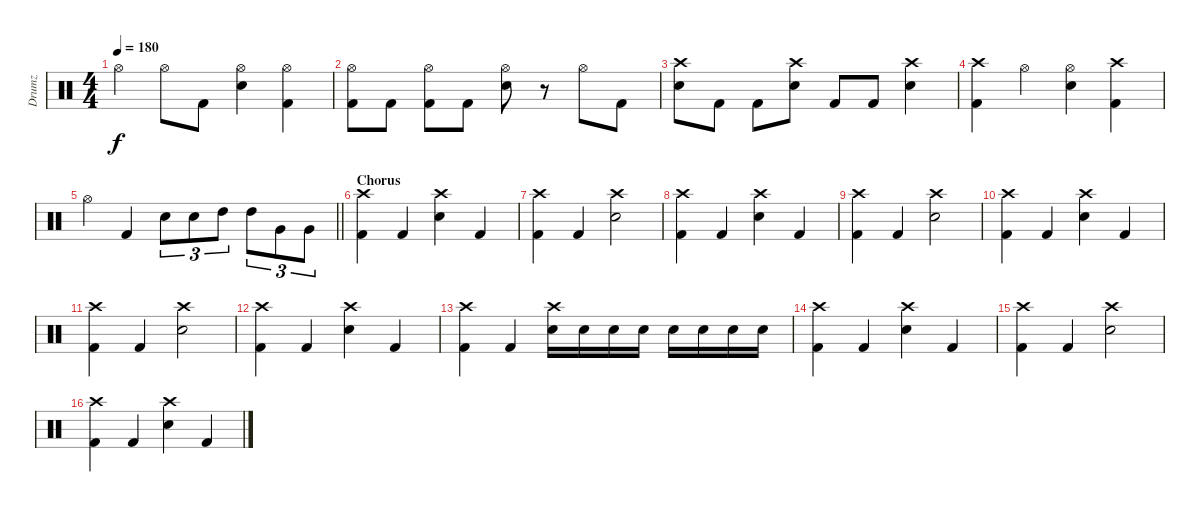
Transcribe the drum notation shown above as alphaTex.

\track ("Drumz" "Drumz") {instrument percussion}
\staff {score}
\articulation defaults
\ts (4 4)
\tempo 180
\clef neutral
\ks c "Hi-Hat (open)".4{dy f} "Hi-Hat (open)".8 "Kick (hit) 2".8
("Hi-Hat (open)" "Snare (hit) 2").4 ("Kick (hit) 2" "Hi-Hat (open)").4 |
("Kick (hit) 2" "Hi-Hat (open)").8 "Kick (hit) 2".8 ("Kick (hit) 2" "Hi-Hat (open)").8 "Kick (hit) 2".8 ("Hi-Hat (open)" "Snare (hit) 2").8 r.8 "Hi-Hat (open)".8 "Kick (hit) 2".8 |
("Crash high (hit)" "Snare (hit) 2").8 "Kick (hit) 2".8 "Kick (hit) 2".8 ("Crash high (hit)" "Snare (hit) 2").8 "Kick (hit) 2".8 "Kick (hit) 2".8 ("Crash high (hit)" "Snare (hit) 2").4 |
("Kick (hit) 2" "Crash high (hit)").4 "Hi-Hat (open)".4 ("Hi-Hat (open)" "Snare (hit) 2").4 ("Kick (hit) 2" "Crash high (hit)").4 |
\barLineRight lightlight "Hi-Hat (open)".4 "Kick (hit) 2".4 "Snare (hit) 2".8{tu (3 2)} "Snare (hit) 2".8{tu (3 2)} "High Tom (hit)".8{tu (3 2)} "High Tom (hit)".8{tu (3 2)} "Very Low Tom (hit)".8{tu (3 2)} "Very Low Tom (hit)".8{tu (3 2)}
|
\section ("" "Chorus")
("Kick (hit) 2" "Crash high (hit)").4 "Kick (hit) 2".4 ("Snare (hit) 2" "Crash high (hit)").4 "Kick (hit) 2".4 |
("Crash high (hit)" "Kick (hit) 2").4 "Kick (hit) 2".4 ("Crash high (hit)" "Snare (hit) 2").2 |
("Kick (hit) 2" "Crash high (hit)").4 "Kick (hit) 2".4 ("Snare (hit) 2" "Crash high (hit)").4 "Kick (hit) 2".4 |
("Crash high (hit)" "Kick (hit) 2").4 "Kick (hit) 2".4 ("Crash high (hit)" "Snare (hit) 2").2 |
("Kick (hit) 2" "Crash high (hit)").4 "Kick (hit) 2".4 ("Snare (hit) 2" "Crash high (hit)").4 "Kick (hit) 2".4 |
("Crash high (hit)" "Kick (hit) 2").4 "Kick (hit) 2".4 ("Crash high (hit)" "Snare (hit) 2").2 |
("Kick (hit) 2" "Crash high (hit)").4 "Kick (hit) 2".4 ("Snare (hit) 2" "Crash high (hit)").4 "Kick (hit) 2".4 |
("Crash high (hit)" "Kick (hit) 2").4 "Kick (hit) 2".4 ("Crash high (hit)" "Electric Snare (hit)").16 "Electric Snare (hit)".16 "Electric Snare (hit)".16 "Electric Snare (hit)".16 "Electric Snare (hit)".16 "Electric Snare (hit)".16 "Electric Snare (hit)".16 "Electric Snare (hit)".16 |
("Kick (hit) 2" "Crash high (hit)").4 "Kick (hit) 2".4 ("Snare (hit) 2" "Crash high (hit)").4 "Kick (hit) 2".4 |
("Crash high (hit)" "Kick (hit) 2").4 "Kick (hit) 2".4 ("Crash high (hit)" "Snare (hit) 2").2 |
("Kick (hit) 2" "Crash high (hit)").4 "Kick (hit) 2".4 ("Snare (hit) 2" "Crash high (hit)").4 "Kick (hit) 2".4
